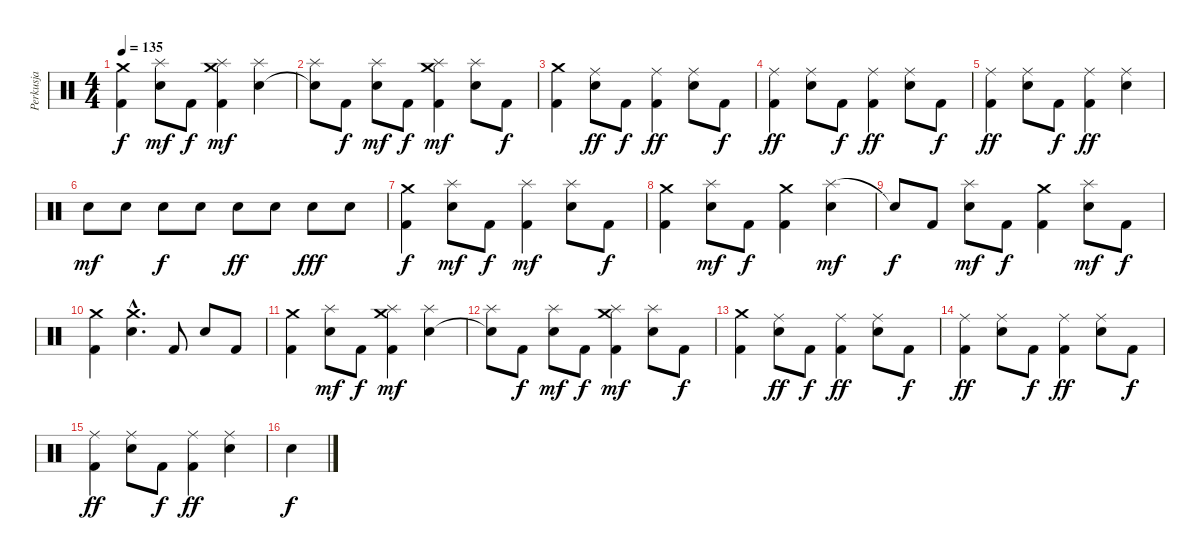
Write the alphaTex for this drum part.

\track ("Perkusja" "Perkusja") {instrument percussion}
\staff {score}
\articulation defaults
\ts (4 4)
\tempo 135
\clef neutral
\ks c
("Crash medium (hit)" "Kick (hit) 2").4{dy f} ("Splash (hit)" "Snare (hit) 2").8{dy mf} "Kick (hit) 2".8{dy f} ("Splash (hit)" "Crash medium (hit)" "Kick (hit) 2").4{dy mf} ("Splash (hit)" "Snare (hit) 2").4 |
("Splash (hit)" "Snare (hit)"{t}).8 "Kick (hit) 2".8{dy f} ("Splash (hit)" "Snare (hit) 2").8{dy mf} "Kick (hit) 2".8{dy f} ("Splash (hit)" "Crash medium (hit)" "Kick (hit) 2").4{dy mf} ("Splash (hit)" "Snare (hit) 2").8 "Kick (hit) 2".8{dy f} |
("Crash medium (hit)" "Kick (hit) 2").4 ("Ride (middle)" "Snare (hit) 2").8{dy ff} "Kick (hit) 2".8{dy f} ("Ride (middle)" "Kick (hit) 2").4{dy ff} ("Ride (middle)" "Snare (hit) 2").8 "Kick (hit) 2".8{dy f} |
("Ride (middle)" "Kick (hit) 2").4{dy ff} ("Ride (middle)" "Snare (hit) 2").8 "Kick (hit) 2".8{dy f} ("Ride (middle)" "Kick (hit) 2").4{dy ff} ("Ride (middle)" "Snare (hit) 2").8 "Kick (hit) 2".8{dy f} |
("Ride (middle)" "Kick (hit) 2").4{dy ff} ("Ride (middle)" "Snare (hit) 2").8 "Kick (hit) 2".8{dy f} ("Ride (middle)" "Kick (hit) 2").4{dy ff} ("Ride (middle)" "Snare (hit) 2").4 |
"Snare (hit) 2".8{dy mf} "Snare (hit) 2".8 "Snare (hit) 2".8{dy f} "Snare (hit) 2".8 "Snare (hit) 2".8{dy ff} "Snare (hit) 2".8 "Snare (hit) 2".8{dy fff} "Snare (hit) 2".8 |
("Crash medium (hit)" "Kick (hit) 2").4{dy f} ("Splash (hit)" "Snare (hit) 2").8{dy mf} "Kick (hit) 2".8{dy f} ("Splash (hit)" "Kick (hit) 2").4{dy mf} ("Splash (hit)" "Snare (hit) 2").8 "Kick (hit) 2".8{dy f} |
("Crash medium (hit)" "Kick (hit) 2").4 ("Splash (hit)" "Snare (hit) 2").8{dy mf} "Kick (hit) 2".8{dy f} ("Crash medium (hit)" "Kick (hit) 2").4 ("Splash (hit)" "Snare (hit) 2").4{dy mf} |
"Snare (hit)"{t}.8{dy f} "Kick (hit) 2".8 ("Splash (hit)" "Snare (hit) 2").8{dy mf} "Kick (hit) 2".8{dy f} ("Crash medium (hit)" "Kick (hit) 2").4 ("Splash (hit)" "Snare (hit) 2").8{dy mf} "Kick (hit) 2".8{dy f} |
("Crash medium (hit)" "Kick (hit) 2").4 ("Crash medium (hit)"{hac} "Snare (hit) 2"{hac}).4{d} "Kick (hit) 2".8 "Snare (hit) 2".8 "Kick (hit) 2".8 |
("Crash medium (hit)" "Kick (hit) 2").4 ("Splash (hit)" "Snare (hit) 2").8{dy mf} "Kick (hit) 2".8{dy f} ("Splash (hit)" "Crash medium (hit)" "Kick (hit) 2").4{dy mf} ("Splash (hit)" "Snare (hit) 2").4 |
("Splash (hit)" "Snare (hit)"{t}).8 "Kick (hit) 2".8{dy f} ("Splash (hit)" "Snare (hit) 2").8{dy mf} "Kick (hit) 2".8{dy f} ("Splash (hit)" "Crash medium (hit)" "Kick (hit) 2").4{dy mf} ("Splash (hit)" "Snare (hit) 2").8 "Kick (hit) 2".8{dy f} |
("Crash medium (hit)" "Kick (hit) 2").4 ("Ride (middle)" "Snare (hit) 2").8{dy ff} "Kick (hit) 2".8{dy f} ("Ride (middle)" "Kick (hit) 2").4{dy ff} ("Ride (middle)" "Snare (hit) 2").8 "Kick (hit) 2".8{dy f} |
("Ride (middle)" "Kick (hit) 2").4{dy ff} ("Ride (middle)" "Snare (hit) 2").8 "Kick (hit) 2".8{dy f} ("Ride (middle)" "Kick (hit) 2").4{dy ff} ("Ride (middle)" "Snare (hit) 2").8 "Kick (hit) 2".8{dy f} |
("Ride (middle)" "Kick (hit) 2").4{dy ff} ("Ride (middle)" "Snare (hit) 2").8 "Kick (hit) 2".8{dy f} ("Ride (middle)" "Kick (hit) 2").4{dy ff} ("Ride (middle)" "Snare (hit) 2").4 |
"Snare (hit) 2".4{dy f}
